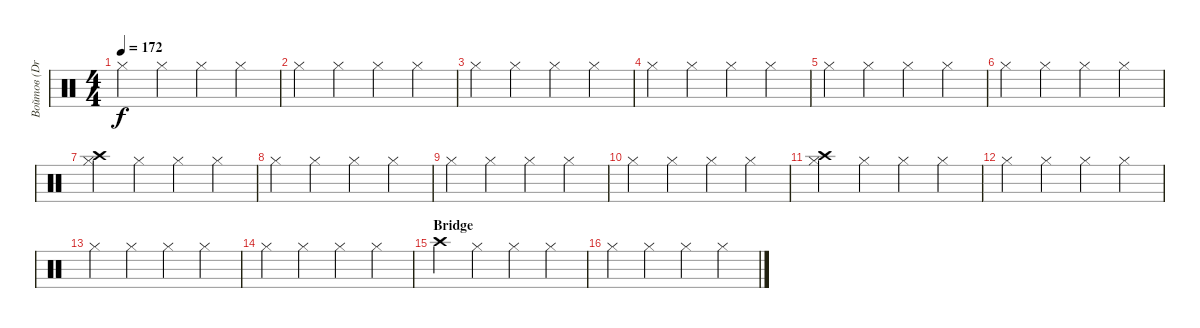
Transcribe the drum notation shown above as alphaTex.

\track ("Войтов (Drums)" "Войтов (Dr") {instrument percussion}
\staff {score}
\articulation defaults
\ts (4 4)
\tempo 172
\clef neutral
\ks c "Hi-Hat (closed)".4{dy f} "Hi-Hat (closed)".4 "Hi-Hat (closed)".4 "Hi-Hat (closed)".4
|
"Hi-Hat (closed)".4 "Hi-Hat (closed)".4 "Hi-Hat (closed)".4 "Hi-Hat (closed)".4 |
"Hi-Hat (closed)".4 "Hi-Hat (closed)".4 "Hi-Hat (closed)".4 "Hi-Hat (closed)".4 |
"Hi-Hat (closed)".4 "Hi-Hat (closed)".4 "Hi-Hat (closed)".4 "Hi-Hat (closed)".4 |
"Hi-Hat (closed)".4 "Hi-Hat (closed)".4 "Hi-Hat (closed)".4 "Hi-Hat (closed)".4 |
"Hi-Hat (closed)".4 "Hi-Hat (closed)".4 "Hi-Hat (closed)".4 "Hi-Hat (closed)".4 |
("Crash high (hit)" "Hi-Hat (closed)").4 "Hi-Hat (closed)".4 "Hi-Hat (closed)".4 "Hi-Hat (closed)".4 |
"Hi-Hat (closed)".4 "Hi-Hat (closed)".4 "Hi-Hat (closed)".4 "Hi-Hat (closed)".4 |
"Hi-Hat (closed)".4 "Hi-Hat (closed)".4 "Hi-Hat (closed)".4 "Hi-Hat (closed)".4 |
"Hi-Hat (closed)".4 "Hi-Hat (closed)".4 "Hi-Hat (closed)".4 "Hi-Hat (closed)".4 |
("Crash high (hit)" "Hi-Hat (closed)").4 "Hi-Hat (closed)".4 "Hi-Hat (closed)".4 "Hi-Hat (closed)".4 |
"Hi-Hat (closed)".4 "Hi-Hat (closed)".4 "Hi-Hat (closed)".4 "Hi-Hat (closed)".4 |
"Hi-Hat (closed)".4 "Hi-Hat (closed)".4 "Hi-Hat (closed)".4 "Hi-Hat (closed)".4 |
"Hi-Hat (closed)".4 "Hi-Hat (closed)".4 "Hi-Hat (closed)".4 "Hi-Hat (closed)".4 |
\section ("" "Bridge")
"Crash high (hit)".4 "Hi-Hat (closed)".4 "Hi-Hat (closed)".4 "Hi-Hat (closed)".4 |
"Hi-Hat (closed)".4 "Hi-Hat (closed)".4 "Hi-Hat (closed)".4 "Hi-Hat (closed)".4
